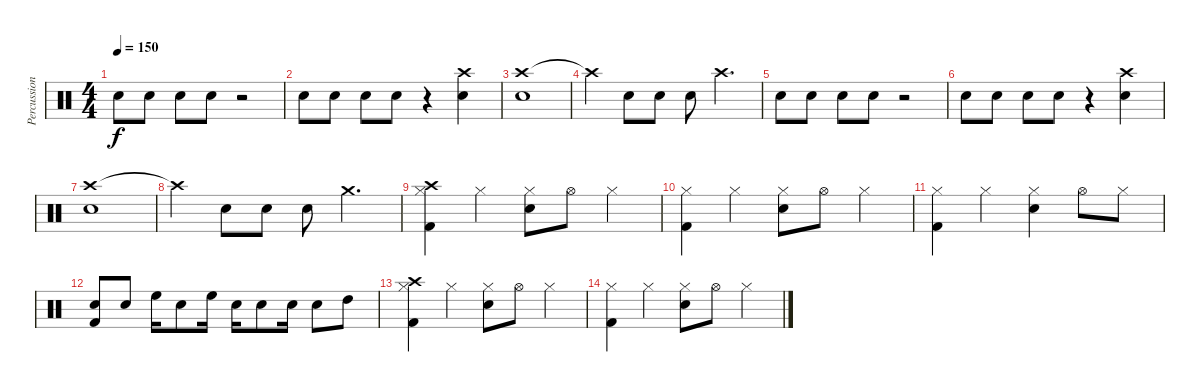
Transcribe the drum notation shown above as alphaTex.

\track ("Percussion" "Percussion") {instrument percussion}
\staff {score}
\articulation defaults
\ts (4 4)
\tempo 150
\clef neutral
\ks c "Snare (hit) 2".8{dy f} "Snare (hit) 2".8 "Snare (hit) 2".8 "Snare (hit) 2".8
r.2 |
"Snare (hit) 2".8 "Snare (hit) 2".8 "Snare (hit) 2".8 "Snare (hit) 2".8 r.4 ("Crash high (hit)" "Snare (hit) 2").4 |
("Crash high (hit)" "Snare (hit) 2").1 |
"Crash high (hit)"{t}.4 "Snare (hit) 2".8 "Snare (hit) 2".8 "Snare (hit) 2".8 "Crash high (hit)".4{d} |
"Snare (hit) 2".8 "Snare (hit) 2".8 "Snare (hit) 2".8 "Snare (hit) 2".8 r.2 |
"Snare (hit) 2".8 "Snare (hit) 2".8 "Snare (hit) 2".8 "Snare (hit) 2".8 r.4 ("Crash high (hit)" "Snare (hit) 2").4 |
("Crash high (hit)" "Snare (hit) 2").1 |
"Crash high (hit)"{t}.4 "Snare (hit) 2".8 "Snare (hit) 2".8 "Snare (hit) 2".8 "Crash medium (hit)".4{d} |
("Hi-Hat (closed)" "Crash high (hit)" "Kick (hit) 2").4 "Hi-Hat (closed)".4 ("Hi-Hat (closed)" "Snare (hit) 2").8 "Hi-Hat (open)".8 "Hi-Hat (closed)".4 |
("Hi-Hat (closed)" "Kick (hit) 2").4 "Hi-Hat (closed)".4 ("Hi-Hat (closed)" "Snare (hit) 2").8 "Hi-Hat (open)".8 "Hi-Hat (closed)".4 |
("Hi-Hat (closed)" "Kick (hit) 2").4 "Hi-Hat (closed)".4 ("Hi-Hat (closed)" "Snare (hit) 2").4 "Hi-Hat (open)".8 "Hi-Hat (closed)".8 |
("Snare (hit) 2" "Kick (hit) 2").8 "Snare (hit) 2".8 "High Floor Tom (hit)".16 "Snare (hit) 2".8 "High Floor Tom (hit)".16 "Snare (hit) 2".16 "Snare (hit) 2".8 "Snare (hit) 2".16 "Snare (hit) 2".8 "High Tom (hit)".8 |
("Hi-Hat (closed)" "Crash high (hit)" "Kick (hit) 2").4 "Hi-Hat (closed)".4 ("Hi-Hat (closed)" "Snare (hit) 2").8 "Hi-Hat (open)".8 "Hi-Hat (closed)".4 |
("Hi-Hat (closed)" "Kick (hit) 2").4 "Hi-Hat (closed)".4 ("Hi-Hat (closed)" "Snare (hit) 2").8 "Hi-Hat (open)".8 "Hi-Hat (closed)".4
